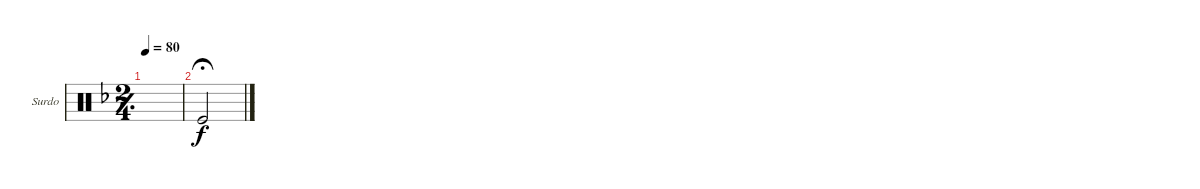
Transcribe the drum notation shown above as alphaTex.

\defaultSystemsLayout 4
\bracketExtendMode groupsimilarinstruments
\firstSystemTrackNameOrientation horizontal
\otherSystemsTrackNameOrientation horizontal
\track ("Surdo" "Surdo") {instrument percussion}
\staff {score}
\articulation defaults
\ts (2 4)
\tempo 80
\clef neutral
\simile simple
\scale
0.333333
\ks f
|
\simile none "Kick (hit)".2{fermata (medium 0.3)}
